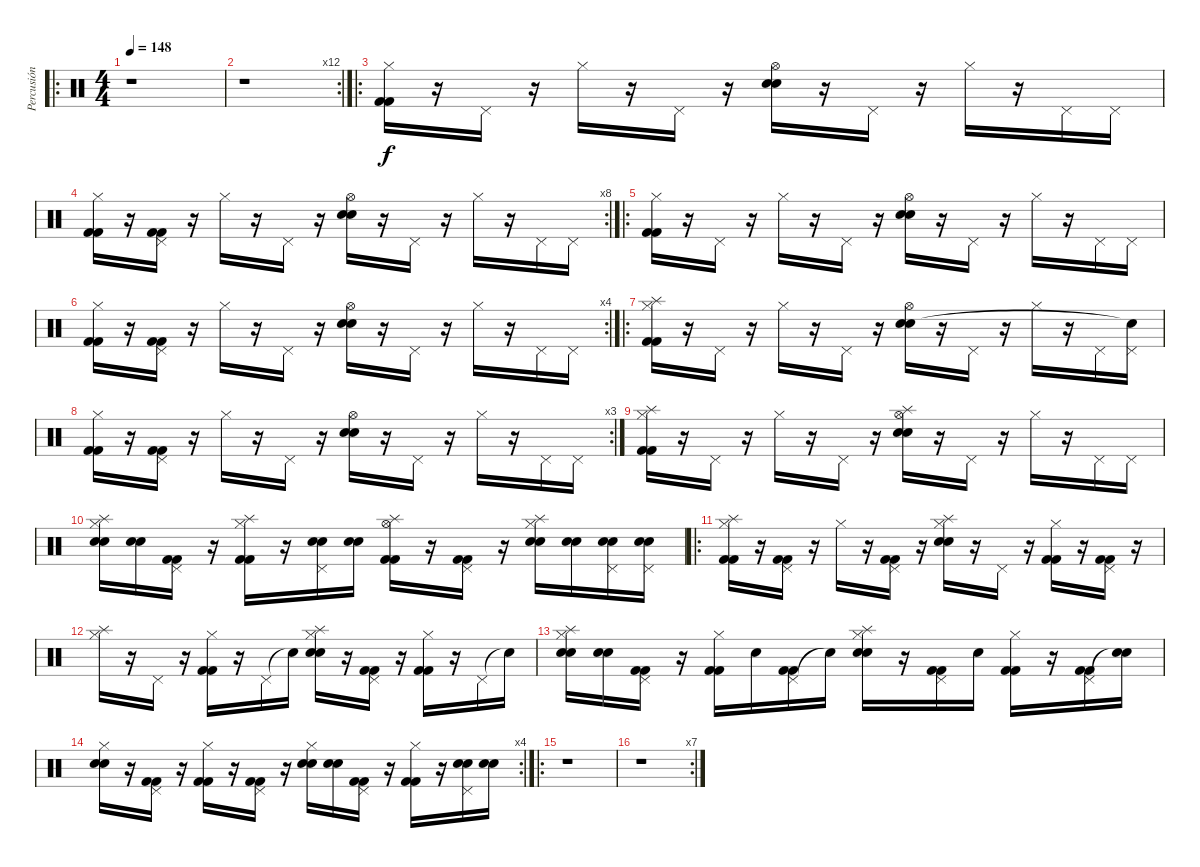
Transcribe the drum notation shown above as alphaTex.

\track ("Percusión" "Percusión") {instrument percussion}
\staff {score}
\articulation defaults
\ro
\ts (4 4)
\tempo 148
\clef neutral
\ks c
r.1{dy f} |
\rc 12
r.1 |
\ro
("Hi-Hat (closed)" "Kick (hit) 2" "Kick (hit) 2").16 r.16 "Pedal Hi-Hat (hit)".16 r.16 "Hi-Hat (closed)".16 r.16 "Pedal Hi-Hat (hit)".16 r.16 ("Hi-Hat (open)" "Electric Snare (hit)" "Electric Snare (hit)").16 r.16 "Pedal Hi-Hat (hit)".16 r.16 "Hi-Hat (closed)".16 r.16 "Pedal Hi-Hat (hit)".16 "Pedal Hi-Hat (hit)".16 |
\rc 8
("Hi-Hat (closed)" "Kick (hit) 2" "Kick (hit) 2").16 r.16 ("Pedal Hi-Hat (hit)" "Kick (hit) 2" "Kick (hit) 2").16 r.16 "Hi-Hat (closed)".16 r.16 "Pedal Hi-Hat (hit)".16 r.16 ("Hi-Hat (open)" "Electric Snare (hit)" "Electric Snare (hit)").16 r.16 "Pedal Hi-Hat (hit)".16 r.16 "Hi-Hat (closed)".16 r.16 "Pedal Hi-Hat (hit)".16 "Pedal Hi-Hat (hit)".16 |
\ro
("Hi-Hat (closed)" "Kick (hit) 2" "Kick (hit) 2").16 r.16 "Pedal Hi-Hat (hit)".16 r.16 "Hi-Hat (closed)".16 r.16 "Pedal Hi-Hat (hit)".16 r.16 ("Hi-Hat (open)" "Electric Snare (hit)" "Electric Snare (hit)").16 r.16 "Pedal Hi-Hat (hit)".16 r.16 "Hi-Hat (closed)".16 r.16 "Pedal Hi-Hat (hit)".16 "Pedal Hi-Hat (hit)".16 |
\rc 4
("Hi-Hat (closed)" "Kick (hit) 2" "Kick (hit) 2").16 r.16 ("Pedal Hi-Hat (hit)" "Kick (hit) 2" "Kick (hit) 2").16 r.16 "Hi-Hat (closed)".16 r.16 "Pedal Hi-Hat (hit)".16 r.16 ("Hi-Hat (open)" "Electric Snare (hit)" "Electric Snare (hit)").16 r.16 "Pedal Hi-Hat (hit)".16 r.16 "Hi-Hat (closed)".16 r.16 "Pedal Hi-Hat (hit)".16 "Pedal Hi-Hat (hit)".16 |
\ro
("Hi-Hat (closed)" "Splash (hit)" "Kick (hit) 2" "Kick (hit) 2").16 r.16 "Pedal Hi-Hat (hit)".16 r.16 "Hi-Hat (closed)".16 r.16 "Pedal Hi-Hat (hit)".16 r.16 ("Hi-Hat (open)" "Electric Snare (hit)" "Electric Snare (hit)").16 r.16 "Pedal Hi-Hat (hit)".16 r.16 "Hi-Hat (closed)".16 r.16 "Pedal Hi-Hat (hit)".16 ("Pedal Hi-Hat (hit)" "Snare (hit)"{t}).16 |
\rc 3
("Hi-Hat (closed)" "Kick (hit) 2" "Kick (hit) 2").16 r.16 ("Pedal Hi-Hat (hit)" "Kick (hit) 2" "Kick (hit) 2").16 r.16 "Hi-Hat (closed)".16 r.16 "Pedal Hi-Hat (hit)".16 r.16 ("Hi-Hat (open)" "Electric Snare (hit)" "Electric Snare (hit)").16 r.16 "Pedal Hi-Hat (hit)".16 r.16 "Hi-Hat (closed)".16 r.16 "Pedal Hi-Hat (hit)".16 "Pedal Hi-Hat (hit)".16 |
("Hi-Hat (closed)" "Splash (hit)" "Kick (hit) 2" "Kick (hit) 2").16 r.16 "Pedal Hi-Hat (hit)".16 r.16 "Hi-Hat (closed)".16 r.16 "Pedal Hi-Hat (hit)".16 r.16 ("Hi-Hat (open)" "Splash (hit)" "Electric Snare (hit)" "Electric Snare (hit)").16 r.16 "Pedal Hi-Hat (hit)".16 r.16 "Hi-Hat (closed)".16 r.16 "Pedal Hi-Hat (hit)".16 "Pedal Hi-Hat (hit)".16 |
("Hi-Hat (closed)" "Splash (hit)" "Electric Snare (hit)" "Electric Snare (hit)").16 ("Electric Snare (hit)" "Electric Snare (hit)").16 ("Pedal Hi-Hat (hit)" "Kick (hit) 2" "Kick (hit) 2").16 r.16 ("Hi-Hat (closed)" "Splash (hit)" "Kick (hit) 2" "Kick (hit) 2").16 r.16 ("Pedal Hi-Hat (hit)" "Electric Snare (hit)" "Electric Snare (hit)").16 ("Electric Snare (hit)" "Electric Snare (hit)").16 ("Hi-Hat (open)" "Splash (hit)" "Kick (hit) 2" "Kick (hit) 2").16 r.16 ("Pedal Hi-Hat (hit)" "Kick (hit) 2" "Kick (hit) 2").16 r.16 ("Hi-Hat (closed)" "Splash (hit)" "Electric Snare (hit)" "Electric Snare (hit)").16 ("Electric Snare (hit)" "Electric Snare (hit)").16 ("Pedal Hi-Hat (hit)" "Electric Snare (hit)" "Electric Snare (hit)").16 ("Pedal Hi-Hat (hit)" "Electric Snare (hit)" "Electric Snare (hit)").16 |
\ro
("Hi-Hat (closed)" "Splash (hit)" "Kick (hit) 2" "Kick (hit) 2").16 r.16 ("Pedal Hi-Hat (hit)" "Kick (hit) 2" "Kick (hit) 2").16 r.16 "Hi-Hat (closed)".16 r.16 ("Pedal Hi-Hat (hit)" "Kick (hit) 2" "Kick (hit) 2").16 r.16 ("Hi-Hat (closed)" "Splash (hit)" "Electric Snare (hit)" "Electric Snare (hit)").16 r.16 "Pedal Hi-Hat (hit)".16 r.16 ("Hi-Hat (closed)" "Kick (hit) 2" "Kick (hit) 2").16 r.16 ("Pedal Hi-Hat (hit)" "Kick (hit) 2" "Kick (hit) 2").16 r.16 |
("Hi-Hat (closed)" "Splash (hit)").16 r.16 "Pedal Hi-Hat (hit)".16 r.16 ("Hi-Hat (closed)" "Kick (hit) 2" "Kick (hit) 2").16 r.16 "Pedal Hi-Hat (hit)".16 "Snare (hit)"{t}.16 ("Hi-Hat (closed)" "Splash (hit)" "Electric Snare (hit)" "Electric Snare (hit)").16 r.16 ("Pedal Hi-Hat (hit)" "Kick (hit) 2" "Kick (hit) 2").16 r.16 ("Hi-Hat (closed)" "Kick (hit) 2" "Kick (hit) 2").16 r.16 "Pedal Hi-Hat (hit)".16 "Snare (hit)"{t}.16 |
("Hi-Hat (closed)" "Splash (hit)" "Electric Snare (hit)" "Electric Snare (hit)").16 ("Electric Snare (hit)" "Electric Snare (hit)").16 ("Pedal Hi-Hat (hit)" "Kick (hit) 2" "Kick (hit) 2").16 r.16 ("Hi-Hat (closed)" "Kick (hit) 2" "Kick (hit) 2").16 "Electric Snare (hit)".16 ("Pedal Hi-Hat (hit)" "Kick (hit) 2" "Kick (hit) 2").16 "Snare (hit)"{t}.16 ("Hi-Hat (closed)" "Splash (hit)" "Electric Snare (hit)" "Electric Snare (hit)").16 r.16 ("Pedal Hi-Hat (hit)" "Kick (hit) 2" "Kick (hit) 2").16 "Electric Snare (hit)".16 ("Hi-Hat (closed)" "Kick (hit) 2" "Kick (hit) 2").16 r.16 ("Pedal Hi-Hat (hit)" "Kick (hit) 2" "Kick (hit) 2").16 ("Snare (hit)"{t} "Electric Snare (hit)").16 |
\rc 4
("Hi-Hat (closed)" "Electric Snare (hit)" "Electric Snare (hit)").16 r.16 ("Pedal Hi-Hat (hit)" "Kick (hit) 2" "Kick (hit) 2").16 r.16 ("Hi-Hat (closed)" "Kick (hit) 2" "Kick (hit) 2").16 r.16 ("Pedal Hi-Hat (hit)" "Kick (hit) 2" "Kick (hit) 2").16 r.16 ("Hi-Hat (closed)" "Electric Snare (hit)" "Electric Snare (hit)").16 ("Electric Snare (hit)" "Electric Snare (hit)").16 ("Pedal Hi-Hat (hit)" "Kick (hit) 2" "Kick (hit) 2").16 r.16 ("Hi-Hat (closed)" "Kick (hit) 2" "Kick (hit) 2").16 r.16 ("Pedal Hi-Hat (hit)" "Electric Snare (hit)" "Electric Snare (hit)").16 ("Electric Snare (hit)" "Electric Snare (hit)").16 |
\ro
r.1 |
\rc 7
r.1
